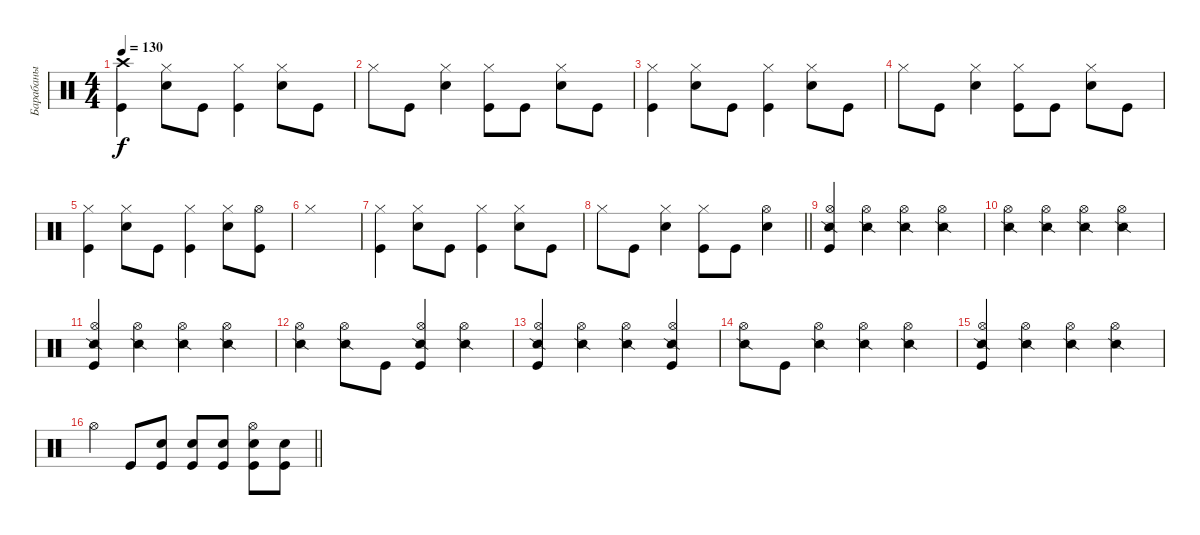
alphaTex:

\track ("Барабаны" "Барабаны") {instrument percussion}
\staff {score}
\articulation defaults
\ts (4 4)
\tempo 130
\clef neutral
\ks c
("Crash high (hit)" "Kick (hit)").4{dy f} ("Hi-Hat (closed)" "Electric Snare (hit)").8 "Kick (hit)".8 ("Hi-Hat (closed)" "Kick (hit)").4 ("Hi-Hat (closed)" "Electric Snare (hit)").8 "Kick (hit)".8 |
"Hi-Hat (closed)".8 "Kick (hit)".8 ("Hi-Hat (closed)" "Electric Snare (hit)").4 ("Hi-Hat (closed)" "Kick (hit)").8 "Kick (hit)".8 ("Hi-Hat (closed)" "Electric Snare (hit)").8 "Kick (hit)".8 |
("Hi-Hat (closed)" "Kick (hit)").4 ("Hi-Hat (closed)" "Electric Snare (hit)").8 "Kick (hit)".8 ("Hi-Hat (closed)" "Kick (hit)").4 ("Hi-Hat (closed)" "Electric Snare (hit)").8 "Kick (hit)".8 |
"Hi-Hat (closed)".8 "Kick (hit)".8 ("Hi-Hat (closed)" "Electric Snare (hit)").4 ("Hi-Hat (closed)" "Kick (hit)").8 "Kick (hit)".8 ("Hi-Hat (closed)" "Electric Snare (hit)").8 "Kick (hit)".8 |
("Hi-Hat (closed)" "Kick (hit)").4 ("Hi-Hat (closed)" "Electric Snare (hit)").8 "Kick (hit)".8 ("Hi-Hat (closed)" "Kick (hit)").4 ("Hi-Hat (closed)" "Electric Snare (hit)").8 ("Hi-Hat (open)" "Kick (hit)").8 |
"Hi-Hat (closed)".1 |
("Hi-Hat (closed)" "Kick (hit)").4 ("Hi-Hat (closed)" "Electric Snare (hit)").8 "Kick (hit)".8 ("Hi-Hat (closed)" "Kick (hit)").4 ("Hi-Hat (closed)" "Electric Snare (hit)").8 "Kick (hit)".8 |
\barLineRight lightlight "Hi-Hat (closed)".8 "Kick (hit)".8
("Hi-Hat (closed)" "Electric Snare (hit)").4 ("Hi-Hat (closed)" "Kick (hit)").8 "Kick (hit)".8 ("Hi-Hat (open)" "Electric Snare (hit)").4 |
("Hi-Hat (open)" "Snare (side stick) 2" "Kick (hit)").4 ("Hi-Hat (open)" "Snare (side stick) 2").4 ("Hi-Hat (open)" "Snare (side stick) 2").4 ("Hi-Hat (open)" "Snare (side stick) 2").4 |
("Hi-Hat (open)" "Snare (side stick) 2").4 ("Hi-Hat (open)" "Snare (side stick) 2").4 ("Hi-Hat (open)" "Snare (side stick) 2").4 ("Hi-Hat (open)" "Snare (side stick) 2").4 |
("Hi-Hat (open)" "Snare (side stick) 2" "Kick (hit)").4 ("Hi-Hat (open)" "Snare (side stick) 2").4 ("Hi-Hat (open)" "Snare (side stick) 2").4 ("Hi-Hat (open)" "Snare (side stick) 2").4 |
("Hi-Hat (open)" "Snare (side stick) 2").4 ("Hi-Hat (open)" "Snare (side stick) 2").8 "Kick (hit)".8 ("Hi-Hat (open)" "Snare (side stick) 2" "Kick (hit)").4 ("Hi-Hat (open)" "Snare (side stick) 2").4 |
("Hi-Hat (open)" "Snare (side stick) 2" "Kick (hit)").4 ("Hi-Hat (open)" "Snare (side stick) 2").4 ("Hi-Hat (open)" "Snare (side stick) 2").4 ("Hi-Hat (open)" "Snare (side stick) 2" "Kick (hit)").4 |
("Hi-Hat (open)" "Snare (side stick) 2").8 "Kick (hit)".8 ("Hi-Hat (open)" "Snare (side stick) 2").4 ("Hi-Hat (open)" "Snare (side stick) 2").4 ("Hi-Hat (open)" "Snare (side stick) 2").4 |
("Hi-Hat (open)" "Snare (side stick) 2" "Kick (hit)").4 ("Hi-Hat (open)" "Snare (side stick) 2").4 ("Hi-Hat (open)" "Snare (side stick) 2").4 ("Hi-Hat (open)" "Snare (side stick) 2").4 |
\barLineRight lightlight "Hi-Hat (open)".4 "Kick (hit)".8
("Electric Snare (hit)" "Kick (hit)").8 ("Electric Snare (hit)" "Kick (hit)").8 ("Electric Snare (hit)" "Kick (hit)").8 ("Hi-Hat (open)" "Electric Snare (hit)" "Kick (hit)").8 ("Electric Snare (hit)" "Kick (hit)").8
